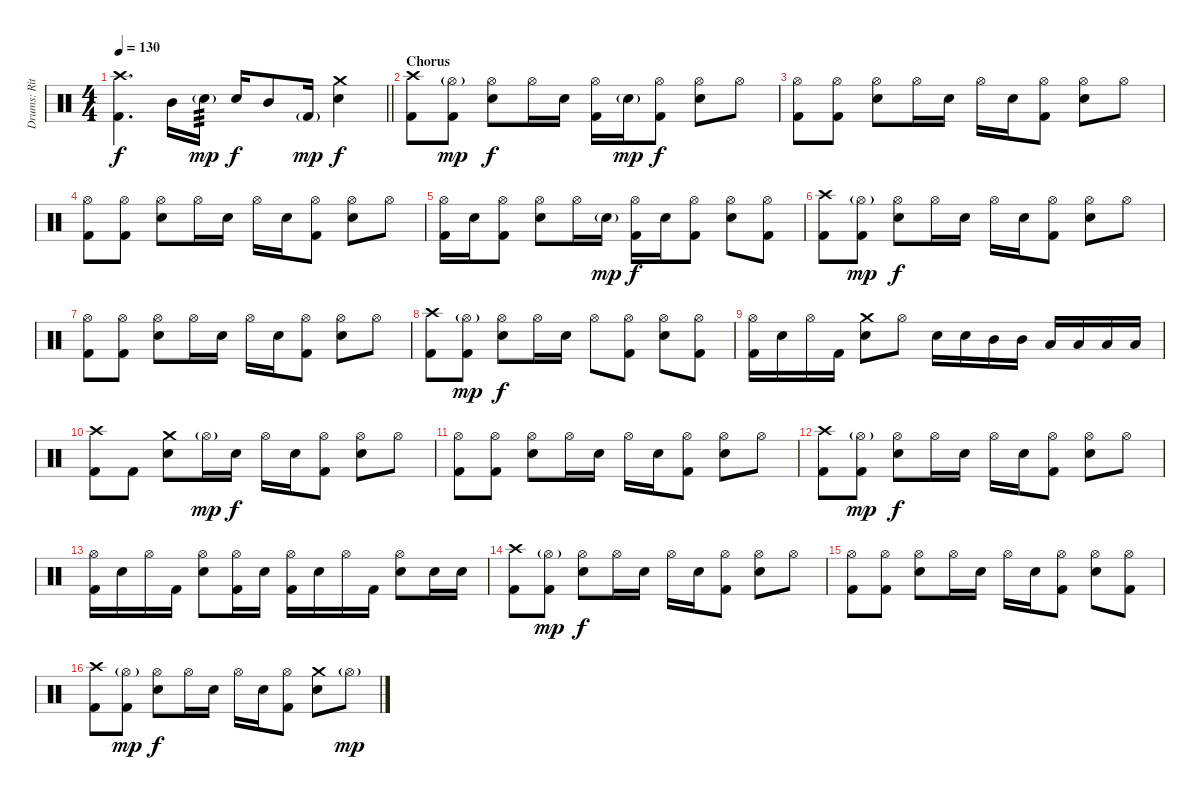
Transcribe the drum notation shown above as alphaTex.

\track ("Drums: Ritsu Tainaka" "Drums: Rit") {instrument percussion}
\staff {score}
\articulation defaults
\ts (4 4)
\tempo 130
\clef neutral
\barLineRight lightlight
\ks c
("Crash high (hit)" "Kick (hit) 2").4{d dy f} "Mid Tom (hit)".16 "Electric Snare (hit)"{g}.16{tp 3 dy mp} "Electric Snare (hit)".16{dy f} "Mid Tom (hit)".8 "Kick (hit) 2"{g}.16{dy mp} ("Crash medium (hit)" "Electric Snare (hit)").4{dy f} |
\section ("" "Chorus")
("Crash high (hit)" "Kick (hit) 2").8 ("Hi-Hat (open)"{g} "Kick (hit) 2").8{dy mp} ("Hi-Hat (open)" "Electric Snare (hit)").8{dy f} "Hi-Hat (open)".16 "Electric Snare (hit)".16 ("Hi-Hat (open)" "Kick (hit) 2").16 "Electric Snare (hit)"{g}.16{dy mp} ("Hi-Hat (open)" "Kick (hit) 2").8{dy f} ("Hi-Hat (open)" "Electric Snare (hit)").8 "Hi-Hat (open)".8 |
("Hi-Hat (open)" "Kick (hit) 2").8 ("Hi-Hat (open)" "Kick (hit) 2").8 ("Hi-Hat (open)" "Electric Snare (hit)").8 "Hi-Hat (open)".16 "Electric Snare (hit)".16 "Hi-Hat (open)".16 "Electric Snare (hit)".16 ("Hi-Hat (open)" "Kick (hit) 2").8 ("Hi-Hat (open)" "Electric Snare (hit)").8 "Hi-Hat (open)".8 |
("Hi-Hat (open)" "Kick (hit) 2").8 ("Hi-Hat (open)" "Kick (hit) 2").8 ("Hi-Hat (open)" "Electric Snare (hit)").8 "Hi-Hat (open)".16 "Electric Snare (hit)".16 "Hi-Hat (open)".16 "Electric Snare (hit)".16 ("Hi-Hat (open)" "Kick (hit) 2").8 ("Hi-Hat (open)" "Electric Snare (hit)").8 "Hi-Hat (open)".8 |
("Hi-Hat (open)" "Kick (hit) 2").16 "Electric Snare (hit)".16 ("Hi-Hat (open)" "Kick (hit) 2").8 ("Hi-Hat (open)" "Electric Snare (hit)").8 "Hi-Hat (open)".16 "Electric Snare (hit)"{g}.16{dy mp} ("Hi-Hat (open)" "Kick (hit) 2").16{dy f} "Electric Snare (hit)".16 ("Hi-Hat (open)" "Kick (hit) 2").8 ("Hi-Hat (open)" "Electric Snare (hit)").8 ("Hi-Hat (open)" "Kick (hit) 2").8 |
("Crash high (hit)" "Kick (hit) 2").8 ("Hi-Hat (open)"{g} "Kick (hit) 2").8{dy mp} ("Hi-Hat (open)" "Electric Snare (hit)").8{dy f} "Hi-Hat (open)".16 "Electric Snare (hit)".16 "Hi-Hat (open)".16 "Electric Snare (hit)".16 ("Hi-Hat (open)" "Kick (hit) 2").8 ("Hi-Hat (open)" "Electric Snare (hit)").8 "Hi-Hat (open)".8 |
("Hi-Hat (open)" "Kick (hit) 2").8 ("Hi-Hat (open)" "Kick (hit) 2").8 ("Hi-Hat (open)" "Electric Snare (hit)").8 "Hi-Hat (open)".16 "Electric Snare (hit)".16 "Hi-Hat (open)".16 "Electric Snare (hit)".16 ("Hi-Hat (open)" "Kick (hit) 2").8 ("Hi-Hat (open)" "Electric Snare (hit)").8 "Hi-Hat (open)".8 |
("Crash high (hit)" "Kick (hit) 2").8 ("Hi-Hat (open)"{g} "Kick (hit) 2").8{dy mp} ("Hi-Hat (open)" "Electric Snare (hit)").8{dy f} "Hi-Hat (open)".16 "Electric Snare (hit)".16 "Hi-Hat (open)".8 ("Hi-Hat (open)" "Kick (hit) 2").8 ("Hi-Hat (open)" "Electric Snare (hit)").8 ("Hi-Hat (open)" "Kick (hit) 2").8 |
("Hi-Hat (open)" "Kick (hit) 2").16 "Electric Snare (hit)".16 "Hi-Hat (open)".16 "Kick (hit) 2".16 ("Crash medium (hit)" "Electric Snare (hit)").8 "Hi-Hat (open)".8 "Electric Snare (hit)".16 "Electric Snare (hit)".16 "Mid Tom (hit)".16 "Mid Tom (hit)".16 "Low Tom (hit)".16 "Low Tom (hit)".16 "Low Floor Tom (hit)".16 "Low Floor Tom (hit)".16 |
("Crash high (hit)" "Kick (hit) 2").8 "Kick (hit) 2".8 ("Crash medium (hit)" "Electric Snare (hit)").8 "Hi-Hat (open)"{g}.16{dy mp} "Electric Snare (hit)".16{dy f} "Hi-Hat (open)".16 "Electric Snare (hit)".16 ("Hi-Hat (open)" "Kick (hit) 2").8 ("Hi-Hat (open)" "Electric Snare (hit)").8 "Hi-Hat (open)".8 |
("Hi-Hat (open)" "Kick (hit) 2").8 ("Hi-Hat (open)" "Kick (hit) 2").8 ("Hi-Hat (open)" "Electric Snare (hit)").8 "Hi-Hat (open)".16 "Electric Snare (hit)".16 "Hi-Hat (open)".16 "Electric Snare (hit)".16 ("Hi-Hat (open)" "Kick (hit) 2").8 ("Hi-Hat (open)" "Electric Snare (hit)").8 "Hi-Hat (open)".8 |
("Crash high (hit)" "Kick (hit) 2").8 ("Hi-Hat (open)"{g} "Kick (hit) 2").8{dy mp} ("Hi-Hat (open)" "Electric Snare (hit)").8{dy f} "Hi-Hat (open)".16 "Electric Snare (hit)".16 "Hi-Hat (open)".16 "Electric Snare (hit)".16 ("Hi-Hat (open)" "Kick (hit) 2").8 ("Hi-Hat (open)" "Electric Snare (hit)").8 "Hi-Hat (open)".8 |
("Hi-Hat (open)" "Kick (hit) 2").16 "Electric Snare (hit)".16 "Hi-Hat (open)".16 "Kick (hit) 2".16 ("Hi-Hat (open)" "Electric Snare (hit)").8 ("Hi-Hat (open)" "Kick (hit) 2").16 "Electric Snare (hit)".16 ("Hi-Hat (open)" "Kick (hit) 2").16 "Electric Snare (hit)".16 "Hi-Hat (open)".16 "Kick (hit) 2".16 ("Hi-Hat (open)" "Electric Snare (hit)").8 "Electric Snare (hit)".16 "Electric Snare (hit)".16 |
("Crash high (hit)" "Kick (hit) 2").8 ("Hi-Hat (open)"{g} "Kick (hit) 2").8{dy mp} ("Hi-Hat (open)" "Electric Snare (hit)").8{dy f} "Hi-Hat (open)".16 "Electric Snare (hit)".16 "Hi-Hat (open)".16 "Electric Snare (hit)".16 ("Hi-Hat (open)" "Kick (hit) 2").8 ("Hi-Hat (open)" "Electric Snare (hit)").8 "Hi-Hat (open)".8 |
("Hi-Hat (open)" "Kick (hit) 2").8 ("Hi-Hat (open)" "Kick (hit) 2").8 ("Hi-Hat (open)" "Electric Snare (hit)").8 "Hi-Hat (open)".16 "Electric Snare (hit)".16 "Hi-Hat (open)".16 "Electric Snare (hit)".16 ("Hi-Hat (open)" "Kick (hit) 2").8 ("Hi-Hat (open)" "Electric Snare (hit)").8 ("Hi-Hat (open)" "Kick (hit) 2").8 |
("Crash high (hit)" "Kick (hit) 2").8 ("Hi-Hat (open)"{g} "Kick (hit) 2").8{dy mp} ("Hi-Hat (open)" "Electric Snare (hit)").8{dy f} "Hi-Hat (open)".16 "Electric Snare (hit)".16 "Hi-Hat (open)".16 "Electric Snare (hit)".16 ("Hi-Hat (open)" "Kick (hit) 2").8 ("Crash medium (hit)" "Electric Snare (hit)").8 "Hi-Hat (open)"{g}.8{dy mp}
